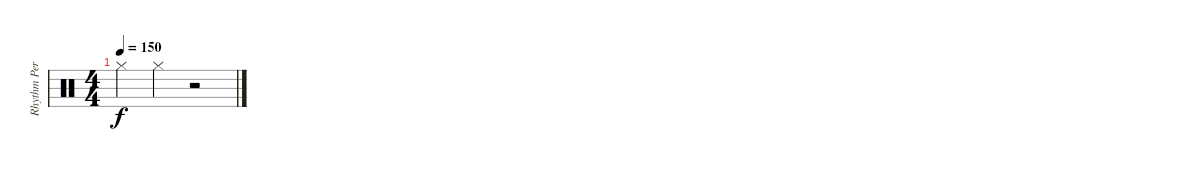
\track ("Rhythm Percussion" "Rhythm Per") {instrument percussion}
\staff {score}
\articulation defaults
\ts (4 4)
\tempo 150
\clef neutral
\ks c "Hi-Hat (closed)".4{dy f} "Hi-Hat (closed)".4
r.2
